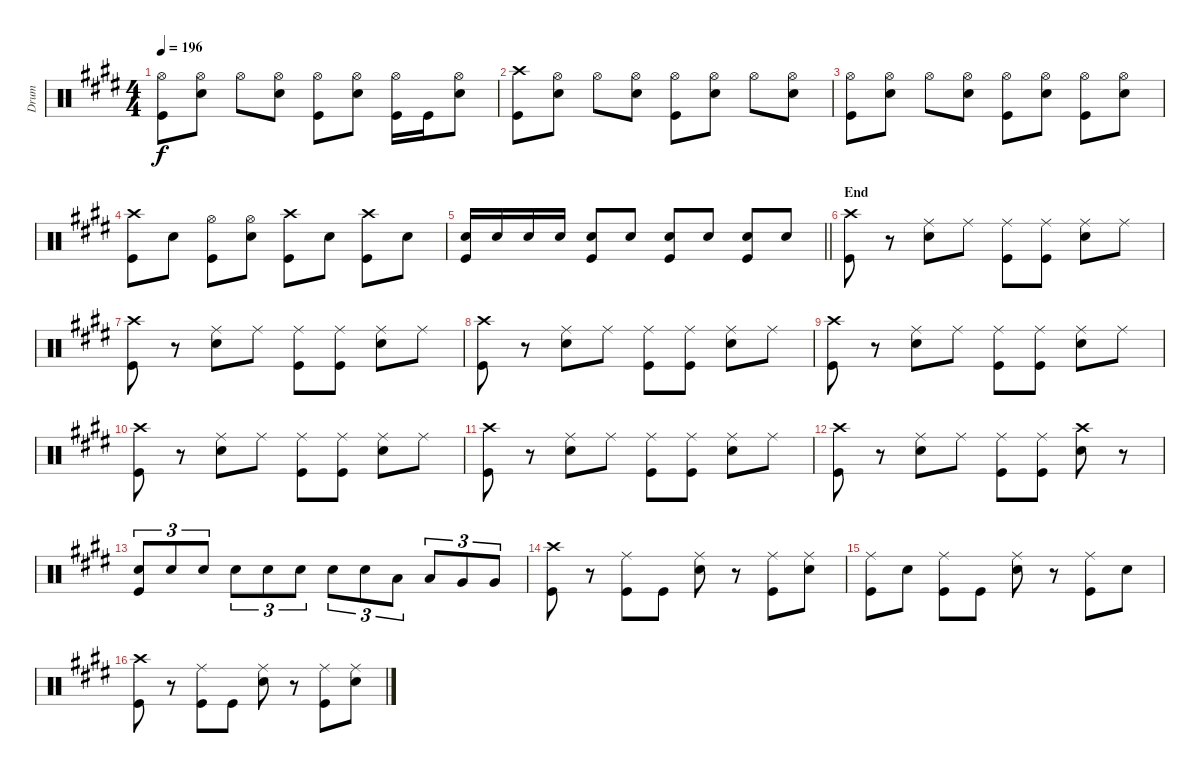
\track ("Drum" "Drum") {instrument percussion}
\staff {score}
\articulation defaults
\ts (4 4)
\tempo 196
\clef neutral
\ks e
("Hi-Hat (open)" "Kick (hit)").8{dy f} ("Hi-Hat (open)" "Snare (hit) 2").8 "Hi-Hat (open)".8 ("Hi-Hat (open)" "Snare (hit) 2").8 ("Hi-Hat (open)" "Kick (hit)").8 ("Hi-Hat (open)" "Snare (hit) 2").8 ("Hi-Hat (open)" "Kick (hit)").16 "Kick (hit)".16 ("Hi-Hat (open)" "Snare (hit) 2").8 |
("Crash high (hit)" "Kick (hit)").8 ("Hi-Hat (open)" "Snare (hit) 2").8 "Hi-Hat (open)".8 ("Hi-Hat (open)" "Snare (hit) 2").8 ("Hi-Hat (open)" "Kick (hit)").8 ("Hi-Hat (open)" "Snare (hit) 2").8 "Hi-Hat (open)".8 ("Hi-Hat (open)" "Snare (hit) 2").8 |
("Hi-Hat (open)" "Kick (hit)").8 ("Hi-Hat (open)" "Snare (hit) 2").8 "Hi-Hat (open)".8 ("Hi-Hat (open)" "Snare (hit) 2").8 ("Hi-Hat (open)" "Kick (hit)").8 ("Hi-Hat (open)" "Snare (hit) 2").8 ("Hi-Hat (open)" "Kick (hit)").8 ("Hi-Hat (open)" "Snare (hit) 2").8 |
("Crash high (hit)" "Kick (hit)").8 "Snare (hit) 2".8 ("Hi-Hat (open)" "Kick (hit)").8 ("Hi-Hat (open)" "Snare (hit) 2").8 ("Crash high (hit)" "Kick (hit)").8 "Snare (hit) 2".8 ("Crash high (hit)" "Kick (hit)").8 "Snare (hit) 2".8 |
\barLineRight lightlight
("Snare (hit) 2" "Kick (hit)").16 "Snare (hit) 2".16 "Snare (hit) 2".16 "Snare (hit) 2".16 ("Snare (hit) 2" "Kick (hit)").8 "Snare (hit) 2".8 ("Snare (hit) 2" "Kick (hit)").8 "Snare (hit) 2".8 ("Snare (hit) 2" "Kick (hit)").8 "Snare (hit) 2".8 |
\section ("" "End")
("Crash high (hit)" "Kick (hit)").8 r.8 ("Ride (middle)" "Snare (hit) 2").8 "Ride (middle)".8 ("Ride (middle)" "Kick (hit)").8 ("Ride (middle)" "Kick (hit)").8 ("Ride (middle)" "Snare (hit) 2").8 "Ride (middle)".8 |
("Crash high (hit)" "Kick (hit)").8 r.8 ("Ride (middle)" "Snare (hit) 2").8 "Ride (middle)".8 ("Ride (middle)" "Kick (hit)").8 ("Ride (middle)" "Kick (hit)").8 ("Ride (middle)" "Snare (hit) 2").8 "Ride (middle)".8 |
("Crash high (hit)" "Kick (hit)").8 r.8 ("Ride (middle)" "Snare (hit) 2").8 "Ride (middle)".8 ("Ride (middle)" "Kick (hit)").8 ("Ride (middle)" "Kick (hit)").8 ("Ride (middle)" "Snare (hit) 2").8 "Ride (middle)".8 |
("Crash high (hit)" "Kick (hit)").8 r.8 ("Ride (middle)" "Snare (hit) 2").8 "Ride (middle)".8 ("Ride (middle)" "Kick (hit)").8 ("Ride (middle)" "Kick (hit)").8 ("Ride (middle)" "Snare (hit) 2").8 "Ride (middle)".8 |
("Crash high (hit)" "Kick (hit)").8 r.8 ("Ride (middle)" "Snare (hit) 2").8 "Ride (middle)".8 ("Ride (middle)" "Kick (hit)").8 ("Ride (middle)" "Kick (hit)").8 ("Ride (middle)" "Snare (hit) 2").8 "Ride (middle)".8 |
("Crash high (hit)" "Kick (hit)").8 r.8 ("Ride (middle)" "Snare (hit) 2").8 "Ride (middle)".8 ("Ride (middle)" "Kick (hit)").8 ("Ride (middle)" "Kick (hit)").8 ("Ride (middle)" "Snare (hit) 2").8 "Ride (middle)".8 |
("Crash high (hit)" "Kick (hit)").8 r.8 ("Ride (middle)" "Snare (hit) 2").8 "Ride (middle)".8 ("Ride (middle)" "Kick (hit)").8 ("Ride (middle)" "Kick (hit)").8 ("Crash high (hit)" "Snare (hit) 2").8 r.8 |
("Snare (hit) 2" "Kick (hit)").8{tu (3 2)} "Snare (hit) 2".8{tu (3 2)} "Snare (hit) 2".8{tu (3 2)} "Snare (hit) 2".8{tu (3 2)} "Snare (hit) 2".8{tu (3 2)} "Snare (hit) 2".8{tu (3 2)} "Snare (hit) 2".8{tu (3 2)} "Snare (hit) 2".8{tu (3 2)} "Low Tom (hit)".8{tu (3 2)} "Low Tom (hit)".8{tu (3 2)} "Very Low Tom (hit)".8{tu (3 2)} "Very Low Tom (hit)".8{tu (3 2)} |
("Crash high (hit)" "Kick (hit)").8 r.8 ("Ride (middle)" "Kick (hit)").8 "Kick (hit)".8 ("Ride (middle)" "Snare (hit) 2").8 r.8 ("Ride (middle)" "Kick (hit)").8 ("Ride (middle)" "Snare (hit) 2").8 |
("Ride (middle)" "Kick (hit)").8 "Snare (hit) 2".8 ("Ride (middle)" "Kick (hit)").8 "Kick (hit)".8 ("Ride (middle)" "Snare (hit) 2").8 r.8 ("Ride (middle)" "Kick (hit)").8 "Snare (hit) 2".8 |
("Crash high (hit)" "Kick (hit)").8 r.8 ("Ride (middle)" "Kick (hit)").8 "Kick (hit)".8 ("Ride (middle)" "Snare (hit) 2").8 r.8 ("Ride (middle)" "Kick (hit)").8 ("Ride (middle)" "Snare (hit) 2").8
